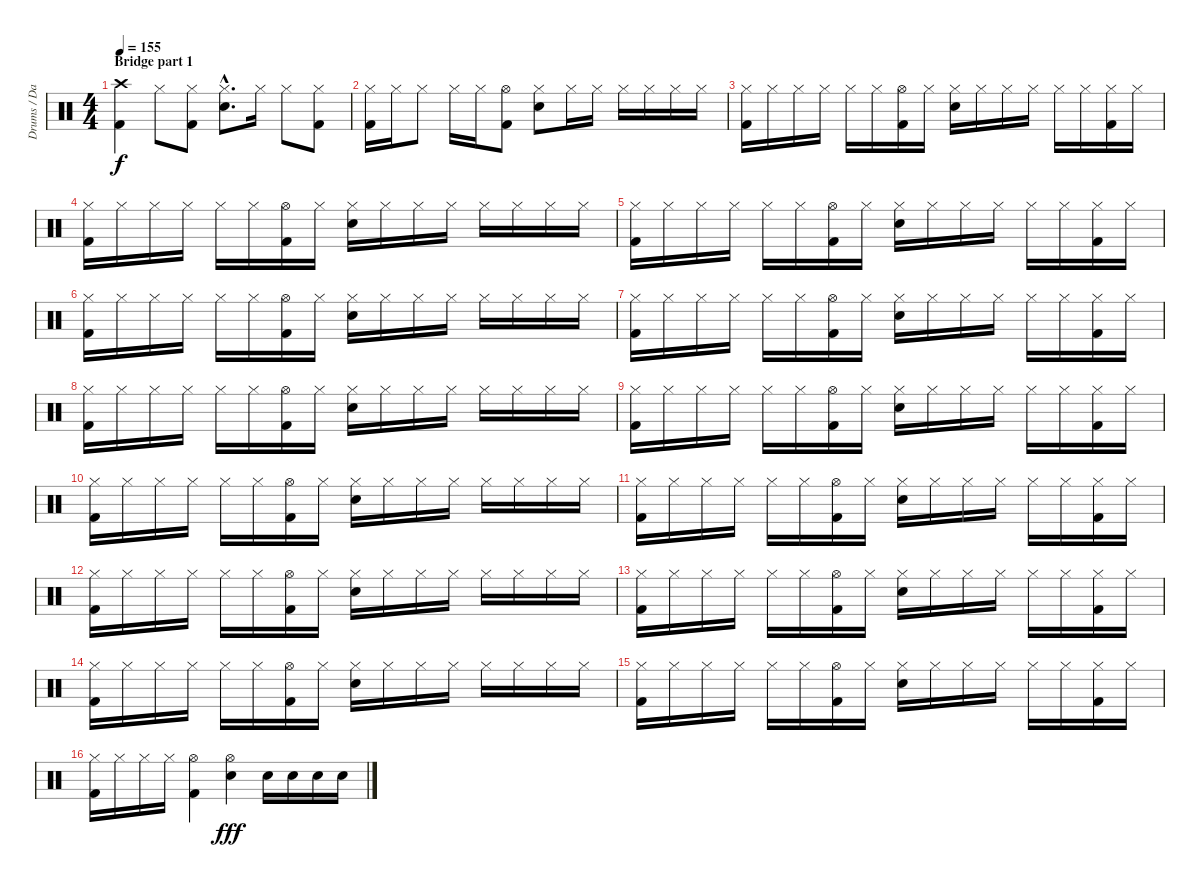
\track ("Drums / David" "Drums / Da") {instrument percussion}
\staff {score}
\articulation defaults
\ts (4 4)
\section ("" "Bridge part 1")
\tempo 155
\clef neutral
\ks c
("Crash high (hit)" "Kick (hit) 2").4{dy f} "Hi-Hat (closed)".8 ("Hi-Hat (closed)" "Kick (hit) 2").8 ("Hi-Hat (closed)"{hac} "Electric Snare (hit)"{hac}).8{d} "Hi-Hat (closed)".16 "Hi-Hat (closed)".8 ("Hi-Hat (closed)" "Kick (hit) 2").8 |
("Hi-Hat (closed)" "Kick (hit) 2").16 "Hi-Hat (closed)".16 "Hi-Hat (closed)".8 "Hi-Hat (closed)".16 "Hi-Hat (closed)".16 ("Hi-Hat (open)" "Kick (hit) 2").8 ("Hi-Hat (closed)" "Electric Snare (hit)").8 "Hi-Hat (closed)".16 "Hi-Hat (closed)".16 "Hi-Hat (closed)".16 "Hi-Hat (closed)".16 "Hi-Hat (closed)".16 "Hi-Hat (closed)".16 |
("Hi-Hat (closed)" "Kick (hit) 2").16 "Hi-Hat (closed)".16 "Hi-Hat (closed)".16 "Hi-Hat (closed)".16 "Hi-Hat (closed)".16 "Hi-Hat (closed)".16 ("Hi-Hat (open)" "Kick (hit) 2").16 "Hi-Hat (closed)".16 ("Hi-Hat (closed)" "Electric Snare (hit)").16 "Hi-Hat (closed)".16 "Hi-Hat (closed)".16 "Hi-Hat (closed)".16 "Hi-Hat (closed)".16 "Hi-Hat (closed)".16 ("Hi-Hat (closed)" "Kick (hit) 2").16 "Hi-Hat (closed)".16 |
("Hi-Hat (closed)" "Kick (hit) 2").16 "Hi-Hat (closed)".16 "Hi-Hat (closed)".16 "Hi-Hat (closed)".16 "Hi-Hat (closed)".16 "Hi-Hat (closed)".16 ("Hi-Hat (open)" "Kick (hit) 2").16 "Hi-Hat (closed)".16 ("Hi-Hat (closed)" "Electric Snare (hit)").16 "Hi-Hat (closed)".16 "Hi-Hat (closed)".16 "Hi-Hat (closed)".16 "Hi-Hat (closed)".16 "Hi-Hat (closed)".16 "Hi-Hat (closed)".16 "Hi-Hat (closed)".16 |
("Hi-Hat (closed)" "Kick (hit) 2").16 "Hi-Hat (closed)".16 "Hi-Hat (closed)".16 "Hi-Hat (closed)".16 "Hi-Hat (closed)".16 "Hi-Hat (closed)".16 ("Hi-Hat (open)" "Kick (hit) 2").16 "Hi-Hat (closed)".16 ("Hi-Hat (closed)" "Electric Snare (hit)").16 "Hi-Hat (closed)".16 "Hi-Hat (closed)".16 "Hi-Hat (closed)".16 "Hi-Hat (closed)".16 "Hi-Hat (closed)".16 ("Hi-Hat (closed)" "Kick (hit) 2").16 "Hi-Hat (closed)".16 |
("Hi-Hat (closed)" "Kick (hit) 2").16 "Hi-Hat (closed)".16 "Hi-Hat (closed)".16 "Hi-Hat (closed)".16 "Hi-Hat (closed)".16 "Hi-Hat (closed)".16 ("Hi-Hat (open)" "Kick (hit) 2").16 "Hi-Hat (closed)".16 ("Hi-Hat (closed)" "Electric Snare (hit)").16 "Hi-Hat (closed)".16 "Hi-Hat (closed)".16 "Hi-Hat (closed)".16 "Hi-Hat (closed)".16 "Hi-Hat (closed)".16 "Hi-Hat (closed)".16 "Hi-Hat (closed)".16 |
("Hi-Hat (closed)" "Kick (hit) 2").16 "Hi-Hat (closed)".16 "Hi-Hat (closed)".16 "Hi-Hat (closed)".16 "Hi-Hat (closed)".16 "Hi-Hat (closed)".16 ("Hi-Hat (open)" "Kick (hit) 2").16 "Hi-Hat (closed)".16 ("Hi-Hat (closed)" "Electric Snare (hit)").16 "Hi-Hat (closed)".16 "Hi-Hat (closed)".16 "Hi-Hat (closed)".16 "Hi-Hat (closed)".16 "Hi-Hat (closed)".16 ("Hi-Hat (closed)" "Kick (hit) 2").16 "Hi-Hat (closed)".16 |
("Hi-Hat (closed)" "Kick (hit) 2").16 "Hi-Hat (closed)".16 "Hi-Hat (closed)".16 "Hi-Hat (closed)".16 "Hi-Hat (closed)".16 "Hi-Hat (closed)".16 ("Hi-Hat (open)" "Kick (hit) 2").16 "Hi-Hat (closed)".16 ("Hi-Hat (closed)" "Electric Snare (hit)").16 "Hi-Hat (closed)".16 "Hi-Hat (closed)".16 "Hi-Hat (closed)".16 "Hi-Hat (closed)".16 "Hi-Hat (closed)".16 "Hi-Hat (closed)".16 "Hi-Hat (closed)".16 |
("Hi-Hat (closed)" "Kick (hit) 2").16 "Hi-Hat (closed)".16 "Hi-Hat (closed)".16 "Hi-Hat (closed)".16 "Hi-Hat (closed)".16 "Hi-Hat (closed)".16 ("Hi-Hat (open)" "Kick (hit) 2").16 "Hi-Hat (closed)".16 ("Hi-Hat (closed)" "Electric Snare (hit)").16 "Hi-Hat (closed)".16 "Hi-Hat (closed)".16 "Hi-Hat (closed)".16 "Hi-Hat (closed)".16 "Hi-Hat (closed)".16 ("Hi-Hat (closed)" "Kick (hit) 2").16 "Hi-Hat (closed)".16 |
("Hi-Hat (closed)" "Kick (hit) 2").16 "Hi-Hat (closed)".16 "Hi-Hat (closed)".16 "Hi-Hat (closed)".16 "Hi-Hat (closed)".16 "Hi-Hat (closed)".16 ("Hi-Hat (open)" "Kick (hit) 2").16 "Hi-Hat (closed)".16 ("Hi-Hat (closed)" "Electric Snare (hit)").16 "Hi-Hat (closed)".16 "Hi-Hat (closed)".16 "Hi-Hat (closed)".16 "Hi-Hat (closed)".16 "Hi-Hat (closed)".16 "Hi-Hat (closed)".16 "Hi-Hat (closed)".16 |
("Hi-Hat (closed)" "Kick (hit) 2").16 "Hi-Hat (closed)".16 "Hi-Hat (closed)".16 "Hi-Hat (closed)".16 "Hi-Hat (closed)".16 "Hi-Hat (closed)".16 ("Hi-Hat (open)" "Kick (hit) 2").16 "Hi-Hat (closed)".16 ("Hi-Hat (closed)" "Electric Snare (hit)").16 "Hi-Hat (closed)".16 "Hi-Hat (closed)".16 "Hi-Hat (closed)".16 "Hi-Hat (closed)".16 "Hi-Hat (closed)".16 ("Hi-Hat (closed)" "Kick (hit) 2").16 "Hi-Hat (closed)".16 |
("Hi-Hat (closed)" "Kick (hit) 2").16 "Hi-Hat (closed)".16 "Hi-Hat (closed)".16 "Hi-Hat (closed)".16 "Hi-Hat (closed)".16 "Hi-Hat (closed)".16 ("Hi-Hat (open)" "Kick (hit) 2").16 "Hi-Hat (closed)".16 ("Hi-Hat (closed)" "Electric Snare (hit)").16 "Hi-Hat (closed)".16 "Hi-Hat (closed)".16 "Hi-Hat (closed)".16 "Hi-Hat (closed)".16 "Hi-Hat (closed)".16 "Hi-Hat (closed)".16 "Hi-Hat (closed)".16 |
("Hi-Hat (closed)" "Kick (hit) 2").16 "Hi-Hat (closed)".16 "Hi-Hat (closed)".16 "Hi-Hat (closed)".16 "Hi-Hat (closed)".16 "Hi-Hat (closed)".16 ("Hi-Hat (open)" "Kick (hit) 2").16 "Hi-Hat (closed)".16 ("Hi-Hat (closed)" "Electric Snare (hit)").16 "Hi-Hat (closed)".16 "Hi-Hat (closed)".16 "Hi-Hat (closed)".16 "Hi-Hat (closed)".16 "Hi-Hat (closed)".16 ("Hi-Hat (closed)" "Kick (hit) 2").16 "Hi-Hat (closed)".16 |
("Hi-Hat (closed)" "Kick (hit) 2").16 "Hi-Hat (closed)".16 "Hi-Hat (closed)".16 "Hi-Hat (closed)".16 "Hi-Hat (closed)".16 "Hi-Hat (closed)".16 ("Hi-Hat (open)" "Kick (hit) 2").16 "Hi-Hat (closed)".16 ("Hi-Hat (closed)" "Electric Snare (hit)").16 "Hi-Hat (closed)".16 "Hi-Hat (closed)".16 "Hi-Hat (closed)".16 "Hi-Hat (closed)".16 "Hi-Hat (closed)".16 "Hi-Hat (closed)".16 "Hi-Hat (closed)".16 |
("Hi-Hat (closed)" "Kick (hit) 2").16 "Hi-Hat (closed)".16 "Hi-Hat (closed)".16 "Hi-Hat (closed)".16 "Hi-Hat (closed)".16 "Hi-Hat (closed)".16 ("Hi-Hat (open)" "Kick (hit) 2").16 "Hi-Hat (closed)".16 ("Hi-Hat (closed)" "Electric Snare (hit)").16 "Hi-Hat (closed)".16 "Hi-Hat (closed)".16 "Hi-Hat (closed)".16 "Hi-Hat (closed)".16 "Hi-Hat (closed)".16 ("Hi-Hat (closed)" "Kick (hit) 2").16 "Hi-Hat (closed)".16 |
("Hi-Hat (closed)" "Kick (hit) 2").16 "Hi-Hat (closed)".16 "Hi-Hat (closed)".16 "Hi-Hat (closed)".16 ("Hi-Hat (open)" "Kick (hit) 2").4 ("Hi-Hat (open)" "Electric Snare (hit)").4{dy fff} "Electric Snare (hit)".16 "Electric Snare (hit)".16 "Electric Snare (hit)".16 "Electric Snare (hit)".16
